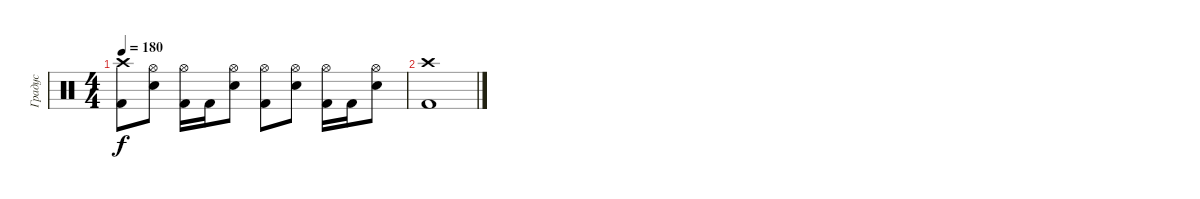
\track ("Градус" "Градус") {instrument percussion}
\staff {score}
\articulation defaults
\ts (4 4)
\tempo 180
\clef neutral
\ks c
("Kick (hit) 2" "Crash high (hit)").8{dy f} ("Electric Snare (hit)" "Hi-Hat (open)").8 ("Kick (hit) 2" "Hi-Hat (open)").16 "Kick (hit) 2".16 ("Electric Snare (hit)" "Hi-Hat (open)").8 ("Kick (hit) 2" "Hi-Hat (open)").8 ("Electric Snare (hit)" "Hi-Hat (open)").8 ("Kick (hit) 2" "Hi-Hat (open)").16 "Kick (hit) 2".16 ("Electric Snare (hit)" "Hi-Hat (open)").8 |
("Kick (hit) 2" "Crash high (hit)").1
